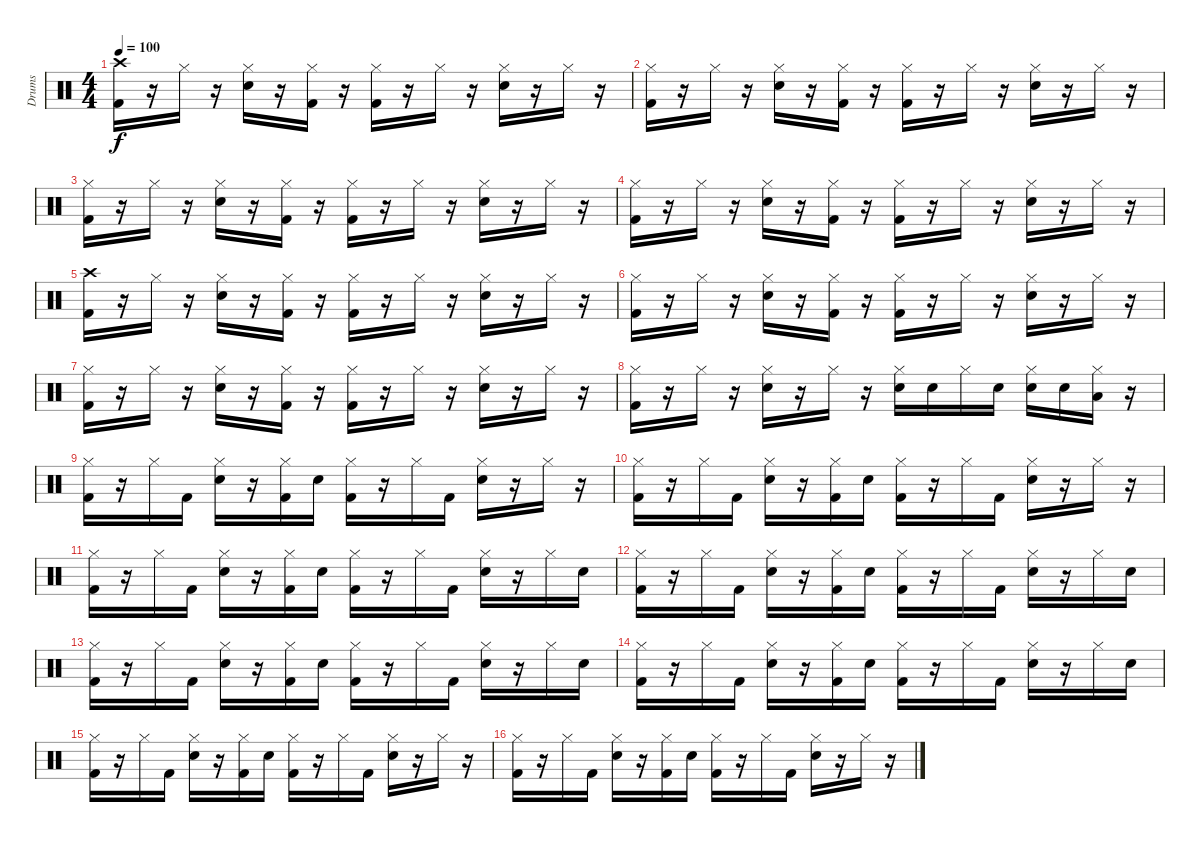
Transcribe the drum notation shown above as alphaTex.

\track ("Drums" "Drums") {instrument percussion}
\staff {score}
\articulation defaults
\ts (4 4)
\tempo 100
\clef neutral
\ks c
("Crash high (hit)" "Kick (hit) 2").16{dy f} r.16 "Hi-Hat (closed)".16 r.16 ("Hi-Hat (closed)" "Snare (hit) 2").16 r.16 ("Hi-Hat (closed)" "Kick (hit) 2").16 r.16 ("Hi-Hat (closed)" "Kick (hit) 2").16 r.16 "Hi-Hat (closed)".16 r.16 ("Hi-Hat (closed)" "Snare (hit) 2").16 r.16 "Hi-Hat (closed)".16 r.16 |
("Hi-Hat (closed)" "Kick (hit) 2").16 r.16 "Hi-Hat (closed)".16 r.16 ("Hi-Hat (closed)" "Snare (hit) 2").16 r.16 ("Hi-Hat (closed)" "Kick (hit) 2").16 r.16 ("Hi-Hat (closed)" "Kick (hit) 2").16 r.16 "Hi-Hat (closed)".16 r.16 ("Hi-Hat (closed)" "Snare (hit) 2").16 r.16 "Hi-Hat (closed)".16 r.16 |
("Hi-Hat (closed)" "Kick (hit) 2").16 r.16 "Hi-Hat (closed)".16 r.16 ("Hi-Hat (closed)" "Snare (hit) 2").16 r.16 ("Hi-Hat (closed)" "Kick (hit) 2").16 r.16 ("Hi-Hat (closed)" "Kick (hit) 2").16 r.16 "Hi-Hat (closed)".16 r.16 ("Hi-Hat (closed)" "Snare (hit) 2").16 r.16 "Hi-Hat (closed)".16 r.16 |
("Hi-Hat (closed)" "Kick (hit) 2").16 r.16 "Hi-Hat (closed)".16 r.16 ("Hi-Hat (closed)" "Snare (hit) 2").16 r.16 ("Hi-Hat (closed)" "Kick (hit) 2").16 r.16 ("Hi-Hat (closed)" "Kick (hit) 2").16 r.16 "Hi-Hat (closed)".16 r.16 ("Hi-Hat (closed)" "Snare (hit) 2").16 r.16 "Hi-Hat (closed)".16 r.16 |
("Crash high (hit)" "Kick (hit) 2").16 r.16 "Hi-Hat (closed)".16 r.16 ("Hi-Hat (closed)" "Snare (hit) 2").16 r.16 ("Hi-Hat (closed)" "Kick (hit) 2").16 r.16 ("Hi-Hat (closed)" "Kick (hit) 2").16 r.16 "Hi-Hat (closed)".16 r.16 ("Hi-Hat (closed)" "Snare (hit) 2").16 r.16 "Hi-Hat (closed)".16 r.16 |
("Hi-Hat (closed)" "Kick (hit) 2").16 r.16 "Hi-Hat (closed)".16 r.16 ("Hi-Hat (closed)" "Snare (hit) 2").16 r.16 ("Hi-Hat (closed)" "Kick (hit) 2").16 r.16 ("Hi-Hat (closed)" "Kick (hit) 2").16 r.16 "Hi-Hat (closed)".16 r.16 ("Hi-Hat (closed)" "Snare (hit) 2").16 r.16 "Hi-Hat (closed)".16 r.16 |
("Hi-Hat (closed)" "Kick (hit) 2").16 r.16 "Hi-Hat (closed)".16 r.16 ("Hi-Hat (closed)" "Snare (hit) 2").16 r.16 ("Hi-Hat (closed)" "Kick (hit) 2").16 r.16 ("Hi-Hat (closed)" "Kick (hit) 2").16 r.16 "Hi-Hat (closed)".16 r.16 ("Hi-Hat (closed)" "Snare (hit) 2").16 r.16 "Hi-Hat (closed)".16 r.16 |
("Hi-Hat (closed)" "Kick (hit) 2").16 r.16 "Hi-Hat (closed)".16 r.16 ("Hi-Hat (closed)" "Snare (hit) 2").16 r.16 "Hi-Hat (closed)".16 r.16 ("Hi-Hat (closed)" "Snare (hit) 2").16 "Snare (hit) 2".16 "Hi-Hat (closed)".16 "Snare (hit) 2".16 ("Hi-Hat (closed)" "Snare (hit) 2").16 "Snare (hit) 2".16 ("Hi-Hat (closed)" "Low Floor Tom (hit)").16 r.16 |
("Hi-Hat (closed)" "Kick (hit) 2").16 r.16 "Hi-Hat (closed)".16 "Kick (hit) 2".16 ("Hi-Hat (closed)" "Snare (hit) 2").16 r.16 ("Hi-Hat (closed)" "Kick (hit) 2").16 "Snare (hit) 2".16 ("Hi-Hat (closed)" "Kick (hit) 2").16 r.16 "Hi-Hat (closed)".16 "Kick (hit) 2".16 ("Hi-Hat (closed)" "Snare (hit) 2").16 r.16 "Hi-Hat (closed)".16 r.16 |
("Hi-Hat (closed)" "Kick (hit) 2").16 r.16 "Hi-Hat (closed)".16 "Kick (hit) 2".16 ("Hi-Hat (closed)" "Snare (hit) 2").16 r.16 ("Hi-Hat (closed)" "Kick (hit) 2").16 "Snare (hit) 2".16 ("Hi-Hat (closed)" "Kick (hit) 2").16 r.16 "Hi-Hat (closed)".16 "Kick (hit) 2".16 ("Hi-Hat (closed)" "Snare (hit) 2").16 r.16 "Hi-Hat (closed)".16 r.16 |
("Hi-Hat (closed)" "Kick (hit) 2").16 r.16 "Hi-Hat (closed)".16 "Kick (hit) 2".16 ("Hi-Hat (closed)" "Snare (hit) 2").16 r.16 ("Hi-Hat (closed)" "Kick (hit) 2").16 "Snare (hit) 2".16 ("Hi-Hat (closed)" "Kick (hit) 2").16 r.16 "Hi-Hat (closed)".16 "Kick (hit) 2".16 ("Hi-Hat (closed)" "Snare (hit) 2").16 r.16 "Hi-Hat (closed)".16 "Snare (hit) 2".16 |
("Hi-Hat (closed)" "Kick (hit) 2").16 r.16 "Hi-Hat (closed)".16 "Kick (hit) 2".16 ("Hi-Hat (closed)" "Snare (hit) 2").16 r.16 ("Hi-Hat (closed)" "Kick (hit) 2").16 "Snare (hit) 2".16 ("Hi-Hat (closed)" "Kick (hit) 2").16 r.16 "Hi-Hat (closed)".16 "Kick (hit) 2".16 ("Hi-Hat (closed)" "Snare (hit) 2").16 r.16 "Hi-Hat (closed)".16 "Snare (hit) 2".16 |
("Hi-Hat (closed)" "Kick (hit) 2").16 r.16 "Hi-Hat (closed)".16 "Kick (hit) 2".16 ("Hi-Hat (closed)" "Snare (hit) 2").16 r.16 ("Hi-Hat (closed)" "Kick (hit) 2").16 "Snare (hit) 2".16 ("Hi-Hat (closed)" "Kick (hit) 2").16 r.16 "Hi-Hat (closed)".16 "Kick (hit) 2".16 ("Hi-Hat (closed)" "Snare (hit) 2").16 r.16 "Hi-Hat (closed)".16 "Snare (hit) 2".16 |
("Hi-Hat (closed)" "Kick (hit) 2").16 r.16 "Hi-Hat (closed)".16 "Kick (hit) 2".16 ("Hi-Hat (closed)" "Snare (hit) 2").16 r.16 ("Hi-Hat (closed)" "Kick (hit) 2").16 "Snare (hit) 2".16 ("Hi-Hat (closed)" "Kick (hit) 2").16 r.16 "Hi-Hat (closed)".16 "Kick (hit) 2".16 ("Hi-Hat (closed)" "Snare (hit) 2").16 r.16 "Hi-Hat (closed)".16 "Snare (hit) 2".16 |
("Hi-Hat (closed)" "Kick (hit) 2").16 r.16 "Hi-Hat (closed)".16 "Kick (hit) 2".16 ("Hi-Hat (closed)" "Snare (hit) 2").16 r.16 ("Hi-Hat (closed)" "Kick (hit) 2").16 "Snare (hit) 2".16 ("Hi-Hat (closed)" "Kick (hit) 2").16 r.16 "Hi-Hat (closed)".16 "Kick (hit) 2".16 ("Hi-Hat (closed)" "Snare (hit) 2").16 r.16 "Hi-Hat (closed)".16 r.16 |
("Hi-Hat (closed)" "Kick (hit) 2").16 r.16 "Hi-Hat (closed)".16 "Kick (hit) 2".16 ("Hi-Hat (closed)" "Snare (hit) 2").16 r.16 ("Hi-Hat (closed)" "Kick (hit) 2").16 "Snare (hit) 2".16 ("Hi-Hat (closed)" "Kick (hit) 2").16 r.16 "Hi-Hat (closed)".16 "Kick (hit) 2".16 ("Hi-Hat (closed)" "Snare (hit) 2").16 r.16 "Hi-Hat (closed)".16 r.16
